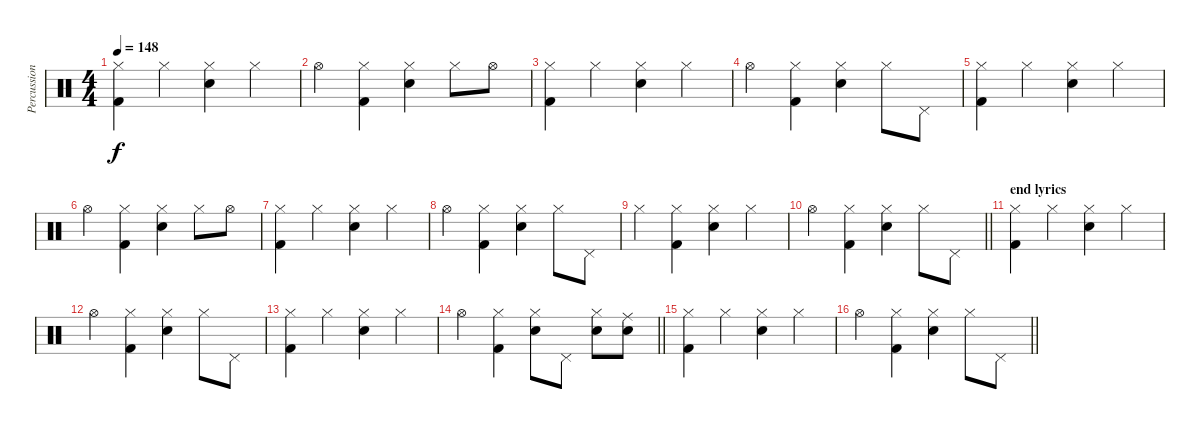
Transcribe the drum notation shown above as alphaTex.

\track ("Percussions" "Percussion") {instrument percussion}
\staff {score}
\articulation defaults
\ts (4 4)
\tempo 148
\clef neutral
\ks c
("Hi-Hat (closed)" "Kick (hit) 2").4{dy f} "Hi-Hat (closed)".4 ("Hi-Hat (closed)" "Snare (hit) 2").4 "Hi-Hat (closed)".4 |
"Hi-Hat (open)".4 ("Hi-Hat (closed)" "Kick (hit) 2").4 ("Hi-Hat (closed)" "Snare (hit) 2").4 "Hi-Hat (closed)".8 "Hi-Hat (open)".8 |
("Hi-Hat (closed)" "Kick (hit) 2").4 "Hi-Hat (closed)".4 ("Hi-Hat (closed)" "Snare (hit) 2").4 "Hi-Hat (closed)".4 |
"Hi-Hat (open)".4 ("Hi-Hat (closed)" "Kick (hit) 2").4 ("Hi-Hat (closed)" "Snare (hit) 2").4 "Hi-Hat (closed)".8 "Pedal Hi-Hat (hit)".8 |
("Hi-Hat (closed)" "Kick (hit) 2").4 "Hi-Hat (closed)".4 ("Hi-Hat (closed)" "Snare (hit) 2").4 "Hi-Hat (closed)".4 |
"Hi-Hat (open)".4 ("Hi-Hat (closed)" "Kick (hit) 2").4 ("Hi-Hat (closed)" "Snare (hit) 2").4 "Hi-Hat (closed)".8 "Hi-Hat (open)".8 |
("Hi-Hat (closed)" "Kick (hit) 2").4 "Hi-Hat (closed)".4 ("Hi-Hat (closed)" "Snare (hit) 2").4 "Hi-Hat (closed)".4 |
"Hi-Hat (open)".4 ("Hi-Hat (closed)" "Kick (hit) 2").4 ("Hi-Hat (closed)" "Snare (hit) 2").4 "Hi-Hat (closed)".8 "Pedal Hi-Hat (hit)".8 |
"Hi-Hat (closed)".4 ("Hi-Hat (closed)" "Kick (hit) 2").4 ("Hi-Hat (closed)" "Snare (hit) 2").4 "Hi-Hat (closed)".4 |
\barLineRight lightlight "Hi-Hat (open)".4
("Hi-Hat (closed)" "Kick (hit) 2").4 ("Hi-Hat (closed)" "Snare (hit) 2").4 "Hi-Hat (closed)".8 "Pedal Hi-Hat (hit)".8 |
\section ("" "end lyrics")
("Hi-Hat (closed)" "Kick (hit) 2").4 "Hi-Hat (closed)".4 ("Hi-Hat (closed)" "Snare (hit) 2").4 "Hi-Hat (closed)".4 |
"Hi-Hat (open)".4 ("Hi-Hat (closed)" "Kick (hit) 2").4 ("Hi-Hat (closed)" "Snare (hit) 2").4 "Hi-Hat (closed)".8 "Pedal Hi-Hat (hit)".8 |
("Hi-Hat (closed)" "Kick (hit) 2").4 "Hi-Hat (closed)".4 ("Hi-Hat (closed)" "Snare (hit) 2").4 "Hi-Hat (closed)".4 |
\barLineRight lightlight "Hi-Hat (open)".4
("Hi-Hat (closed)" "Kick (hit) 2").4 ("Hi-Hat (closed)" "Snare (hit) 2").8 "Pedal Hi-Hat (hit)".8 ("Hi-Hat (closed)" "Snare (hit) 2").8 ("Ride (middle)" "Snare (hit) 2").8 |
("Hi-Hat (closed)" "Kick (hit) 2").4 "Hi-Hat (closed)".4 ("Hi-Hat (closed)" "Snare (hit) 2").4 "Hi-Hat (closed)".4 |
\barLineRight lightlight "Hi-Hat (open)".4
("Hi-Hat (closed)" "Kick (hit) 2").4 ("Hi-Hat (closed)" "Snare (hit) 2").4 "Hi-Hat (closed)".8 "Pedal Hi-Hat (hit)".8
